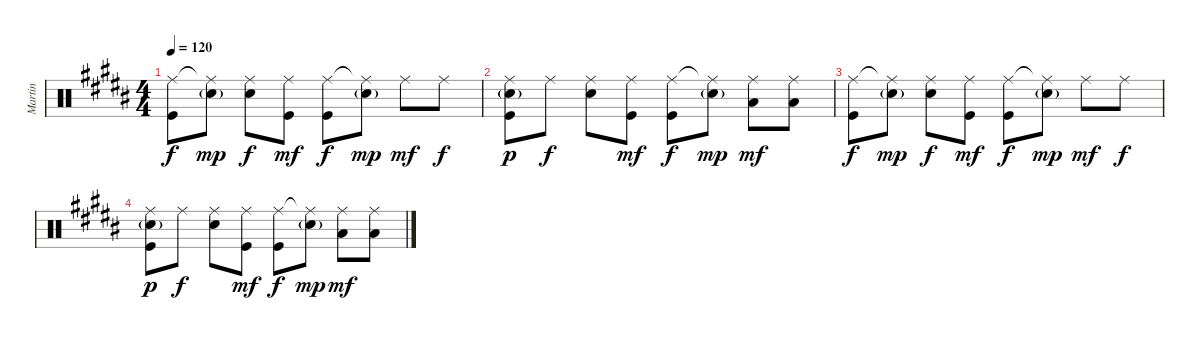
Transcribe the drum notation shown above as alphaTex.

\track ("Martin" "Martin") {instrument percussion}
\staff {score}
\articulation defaults
\ts (4 4)
\tempo 120
\clef neutral
\ks g#minor
("Ride (middle)" "Kick (hit)").8{dy f} ("Ride (middle)"{t} "Electric Snare (hit)"{g}).8{dy mp} ("Ride (middle)" "Electric Snare (hit)").8{dy f} ("Ride (middle)" "Kick (hit)").8{dy mf} ("Ride (middle)" "Kick (hit)").8{dy f} ("Ride (middle)"{t} "Electric Snare (hit)"{g}).8{dy mp} "Ride (middle)".8{dy mf} "Ride (middle)".8{dy f} |
("Ride (middle)" "Electric Snare (hit)"{g} "Kick (hit)").8{dy p} "Ride (middle)".8{dy f} ("Ride (middle)" "Electric Snare (hit)").8 ("Ride (middle)" "Kick (hit)").8{dy mf} ("Ride (middle)" "Kick (hit)").8{dy f} ("Ride (middle)"{t} "Electric Snare (hit)"{g}).8{dy mp} ("Ride (middle)" "Low Tom (hit)").8{dy mf} ("Ride (middle)" "Low Tom (hit)").8 |
("Ride (middle)" "Kick (hit)").8{dy f} ("Ride (middle)"{t} "Electric Snare (hit)"{g}).8{dy mp} ("Ride (middle)" "Electric Snare (hit)").8{dy f} ("Ride (middle)" "Kick (hit)").8{dy mf} ("Ride (middle)" "Kick (hit)").8{dy f} ("Ride (middle)"{t} "Electric Snare (hit)"{g}).8{dy mp} "Ride (middle)".8{dy mf} "Ride (middle)".8{dy f} |
("Ride (middle)" "Electric Snare (hit)"{g} "Kick (hit)").8{dy p} "Ride (middle)".8{dy f} ("Ride (middle)" "Electric Snare (hit)").8 ("Ride (middle)" "Kick (hit)").8{dy mf} ("Ride (middle)" "Kick (hit)").8{dy f} ("Ride (middle)"{t} "Electric Snare (hit)"{g}).8{dy mp} ("Ride (middle)" "Low Tom (hit)").8{dy mf} ("Ride (middle)" "Low Tom (hit)").8
